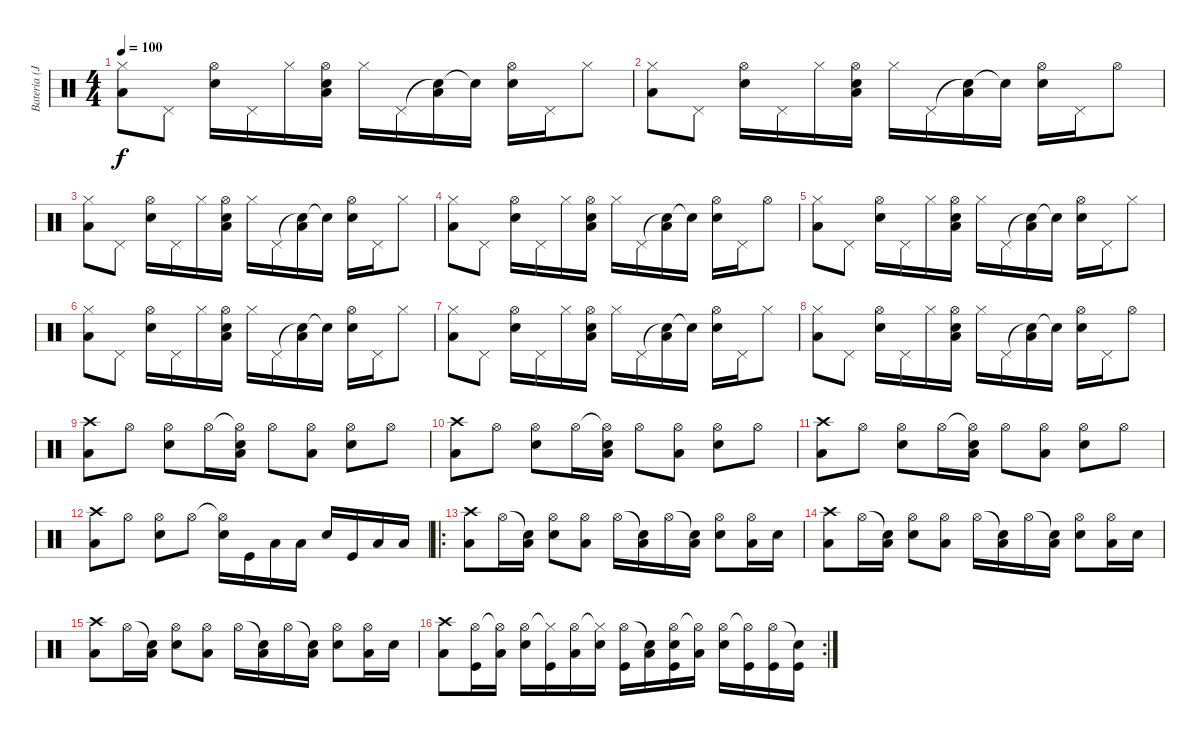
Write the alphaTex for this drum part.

\track ("Bateria (John)" "Bateria (J") {instrument percussion}
\staff {score}
\articulation defaults
\ts (4 4)
\tempo 100
\clef neutral
\ks c
("Hi-Hat (closed)" "Low Tom (hit)").8{dy f} "Pedal Hi-Hat (hit)".8 ("Hi-Hat (open)" "Electric Snare (hit)").16 "Pedal Hi-Hat (hit)".16 "Hi-Hat (closed)".16 ("Hi-Hat (open)" "Electric Snare (hit)" "Low Tom (hit)").16 "Hi-Hat (closed)".16 "Pedal Hi-Hat (hit)".16 ("Snare (hit)"{t} "Low Tom (hit)").16 "Snare (hit)"{t}.16 ("Hi-Hat (open)" "Electric Snare (hit)").16 "Pedal Hi-Hat (hit)".16 "Hi-Hat (closed)".8 |
("Hi-Hat (closed)" "Low Tom (hit)").8 "Pedal Hi-Hat (hit)".8 ("Hi-Hat (open)" "Electric Snare (hit)").16 "Pedal Hi-Hat (hit)".16 "Hi-Hat (closed)".16 ("Hi-Hat (open)" "Electric Snare (hit)" "Low Tom (hit)").16 "Hi-Hat (closed)".16 "Pedal Hi-Hat (hit)".16 ("Snare (hit)"{t} "Low Tom (hit)").16 "Snare (hit)"{t}.16 ("Hi-Hat (open)" "Electric Snare (hit)").16 "Pedal Hi-Hat (hit)".16 "Hi-Hat (open)".8 |
("Hi-Hat (closed)" "Low Tom (hit)").8 "Pedal Hi-Hat (hit)".8 ("Hi-Hat (open)" "Electric Snare (hit)").16 "Pedal Hi-Hat (hit)".16 "Hi-Hat (closed)".16 ("Hi-Hat (open)" "Electric Snare (hit)" "Low Tom (hit)").16 "Hi-Hat (closed)".16 "Pedal Hi-Hat (hit)".16 ("Snare (hit)"{t} "Low Tom (hit)").16 "Snare (hit)"{t}.16 ("Hi-Hat (open)" "Electric Snare (hit)").16 "Pedal Hi-Hat (hit)".16 "Hi-Hat (closed)".8 |
("Hi-Hat (closed)" "Low Tom (hit)").8 "Pedal Hi-Hat (hit)".8 ("Hi-Hat (open)" "Electric Snare (hit)").16 "Pedal Hi-Hat (hit)".16 "Hi-Hat (closed)".16 ("Hi-Hat (open)" "Electric Snare (hit)" "Low Tom (hit)").16 "Hi-Hat (closed)".16 "Pedal Hi-Hat (hit)".16 ("Snare (hit)"{t} "Low Tom (hit)").16 "Snare (hit)"{t}.16 ("Hi-Hat (open)" "Electric Snare (hit)").16 "Pedal Hi-Hat (hit)".16 "Hi-Hat (open)".8 |
("Hi-Hat (closed)" "Low Tom (hit)").8 "Pedal Hi-Hat (hit)".8 ("Hi-Hat (open)" "Electric Snare (hit)").16 "Pedal Hi-Hat (hit)".16 "Hi-Hat (closed)".16 ("Hi-Hat (open)" "Electric Snare (hit)" "Low Tom (hit)").16 "Hi-Hat (closed)".16 "Pedal Hi-Hat (hit)".16 ("Snare (hit)"{t} "Low Tom (hit)").16 "Snare (hit)"{t}.16 ("Hi-Hat (open)" "Electric Snare (hit)").16 "Pedal Hi-Hat (hit)".16 "Hi-Hat (closed)".8 |
("Hi-Hat (closed)" "Low Tom (hit)").8 "Pedal Hi-Hat (hit)".8 ("Hi-Hat (open)" "Electric Snare (hit)").16 "Pedal Hi-Hat (hit)".16 "Hi-Hat (closed)".16 ("Hi-Hat (open)" "Electric Snare (hit)" "Low Tom (hit)").16 "Hi-Hat (closed)".16 "Pedal Hi-Hat (hit)".16 ("Snare (hit)"{t} "Low Tom (hit)").16 "Snare (hit)"{t}.16 ("Hi-Hat (open)" "Electric Snare (hit)").16 "Pedal Hi-Hat (hit)".16 "Hi-Hat (closed)".8 |
("Hi-Hat (closed)" "Low Tom (hit)").8 "Pedal Hi-Hat (hit)".8 ("Hi-Hat (open)" "Electric Snare (hit)").16 "Pedal Hi-Hat (hit)".16 "Hi-Hat (closed)".16 ("Hi-Hat (open)" "Electric Snare (hit)" "Low Tom (hit)").16 "Hi-Hat (closed)".16 "Pedal Hi-Hat (hit)".16 ("Snare (hit)"{t} "Low Tom (hit)").16 "Snare (hit)"{t}.16 ("Hi-Hat (open)" "Electric Snare (hit)").16 "Pedal Hi-Hat (hit)".16 "Hi-Hat (closed)".8 |
("Hi-Hat (closed)" "Low Tom (hit)").8 "Pedal Hi-Hat (hit)".8 ("Hi-Hat (open)" "Electric Snare (hit)").16 "Pedal Hi-Hat (hit)".16 "Hi-Hat (closed)".16 ("Hi-Hat (open)" "Electric Snare (hit)" "Low Tom (hit)").16 "Hi-Hat (closed)".16 "Pedal Hi-Hat (hit)".16 ("Snare (hit)"{t} "Low Tom (hit)").16 "Snare (hit)"{t}.16 ("Hi-Hat (open)" "Electric Snare (hit)").16 "Pedal Hi-Hat (hit)".16 "Hi-Hat (open)".8 |
("Crash high (hit)" "Low Tom (hit)").8 "Hi-Hat (open)".8 ("Hi-Hat (open)" "Electric Snare (hit)").8 "Hi-Hat (open)".16 ("Hi-Hat (open)"{t} "Electric Snare (hit)" "Low Tom (hit)").16 "Hi-Hat (open)".8 ("Hi-Hat (open)" "Low Tom (hit)").8 ("Hi-Hat (open)" "Electric Snare (hit)").8 "Hi-Hat (open)".8 |
("Crash high (hit)" "Low Tom (hit)").8 "Hi-Hat (open)".8 ("Hi-Hat (open)" "Electric Snare (hit)").8 "Hi-Hat (open)".16 ("Hi-Hat (open)"{t} "Electric Snare (hit)" "Low Tom (hit)").16 "Hi-Hat (open)".8 ("Hi-Hat (open)" "Low Tom (hit)").8 ("Hi-Hat (open)" "Electric Snare (hit)").8 "Hi-Hat (open)".8 |
("Crash high (hit)" "Low Tom (hit)").8 "Hi-Hat (open)".8 ("Hi-Hat (open)" "Electric Snare (hit)").8 "Hi-Hat (open)".16 ("Hi-Hat (open)"{t} "Electric Snare (hit)" "Low Tom (hit)").16 "Hi-Hat (open)".8 ("Hi-Hat (open)" "Low Tom (hit)").8 ("Hi-Hat (open)" "Electric Snare (hit)").8 "Hi-Hat (open)".8 |
("Crash high (hit)" "Low Tom (hit)").8 "Hi-Hat (open)".8 ("Hi-Hat (open)" "Electric Snare (hit)").8 "Hi-Hat (open)".8 ("Hi-Hat (open)"{t} "Electric Snare (hit)").16 "Kick (hit)".16 "Low Tom (hit)".16 "Low Tom (hit)".16 "Electric Snare (hit)".16 "Kick (hit)".16 "Low Tom (hit)".16 "Low Tom (hit)".16 |
\ro
("Crash high (hit)" "Low Tom (hit)").8 "Hi-Hat (open)".16 ("Snare (hit)"{t} "Low Tom (hit)").16 ("Hi-Hat (open)" "Electric Snare (hit)").8 ("Hi-Hat (open)" "Low Tom (hit)").8 "Hi-Hat (open)".16 ("Snare (hit)"{t} "Low Tom (hit)").16 "Hi-Hat (open)".16 ("Snare (hit)"{t} "Low Tom (hit)").16 ("Hi-Hat (open)" "Electric Snare (hit)").8 ("Hi-Hat (open)" "Low Tom (hit)").16 "Electric Snare (hit)".16 |
("Crash high (hit)" "Low Tom (hit)").8 "Hi-Hat (open)".16 ("Snare (hit)"{t} "Low Tom (hit)").16 ("Hi-Hat (open)" "Electric Snare (hit)").8 ("Hi-Hat (open)" "Low Tom (hit)").8 "Hi-Hat (open)".16 ("Snare (hit)"{t} "Low Tom (hit)").16 "Hi-Hat (open)".16 ("Snare (hit)"{t} "Low Tom (hit)").16 ("Hi-Hat (open)" "Electric Snare (hit)").8 ("Hi-Hat (open)" "Low Tom (hit)").16 "Electric Snare (hit)".16 |
("Crash high (hit)" "Low Tom (hit)").8 "Hi-Hat (open)".16 ("Snare (hit)"{t} "Low Tom (hit)").16 ("Hi-Hat (open)" "Electric Snare (hit)").8 ("Hi-Hat (open)" "Low Tom (hit)").8 "Hi-Hat (open)".16 ("Snare (hit)"{t} "Low Tom (hit)").16 "Hi-Hat (open)".16 ("Snare (hit)"{t} "Low Tom (hit)").16 ("Hi-Hat (open)" "Electric Snare (hit)").8 ("Hi-Hat (open)" "Low Tom (hit)").16 "Electric Snare (hit)".16 |
\rc 2
("Crash high (hit)" "Low Tom (hit)").8 ("Hi-Hat (open)" "Kick (hit)").16 ("Hi-Hat (open)"{t} "Low Tom (hit)").16 ("Hi-Hat (open)" "Electric Snare (hit)").16 ("Hi-Hat (closed)"{t} "Kick (hit)").16 ("Hi-Hat (open)" "Low Tom (hit)").16 ("Hi-Hat (closed)"{t} "Electric Snare (hit)").16 ("Hi-Hat (open)" "Kick (hit)").16 ("Snare (hit)"{t} "Low Tom (hit)").16 ("Hi-Hat (open)" "Kick (hit)" "Snare (hit)").16 ("Hi-Hat (open)"{t} "Low Tom (hit)").16 ("Hi-Hat (open)" "Electric Snare (hit)").16 ("Hi-Hat (open)"{t} "Kick (hit)").16 ("Hi-Hat (open)" "Kick (hit)").16 ("Snare (hit)"{t} "Kick (hit)").16
